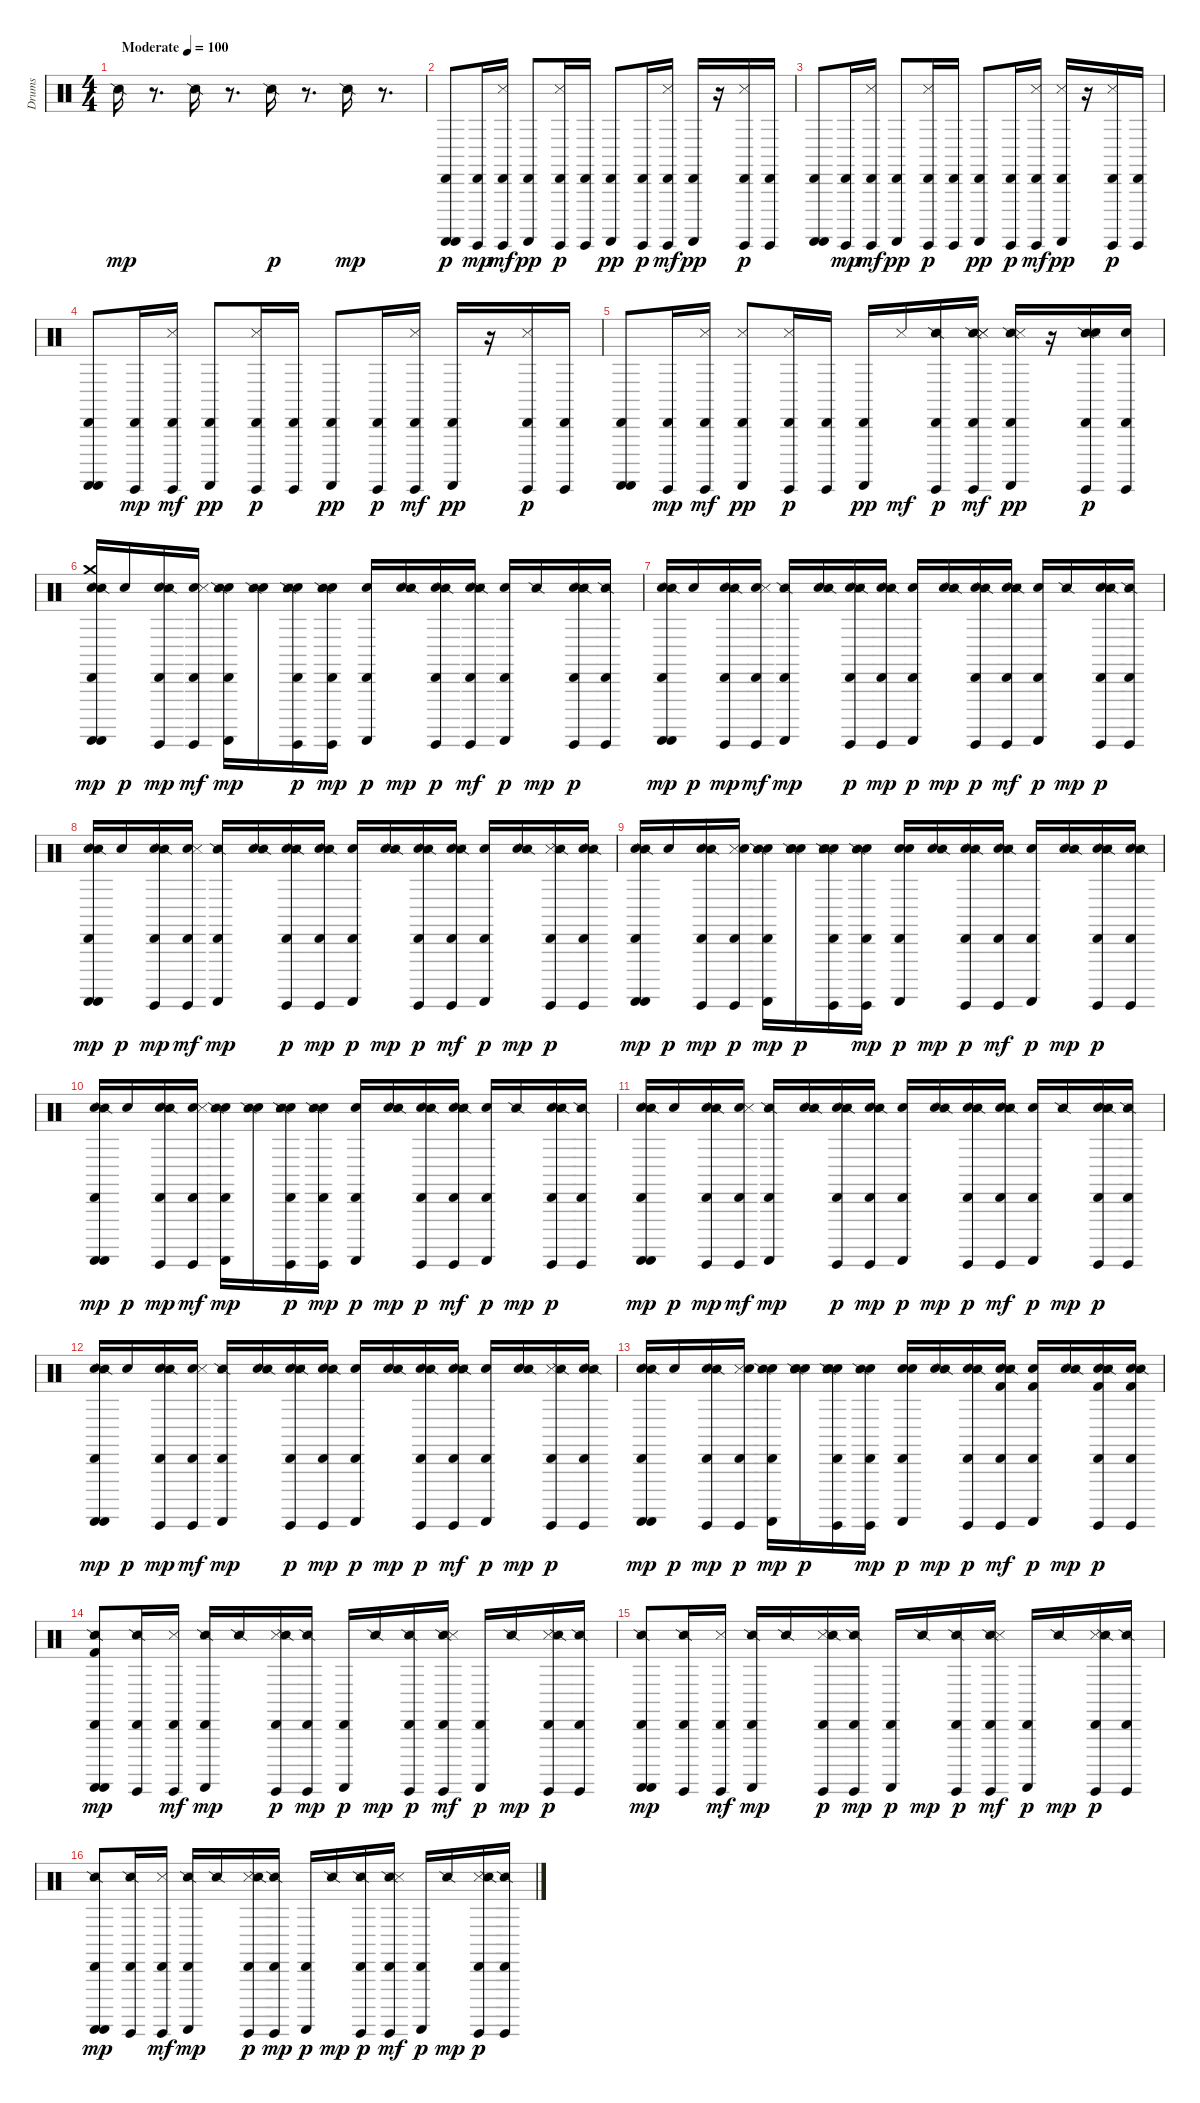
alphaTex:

\track ("Drums" "Drums") {instrument percussion}
\staff {score}
\articulation defaults
\ts (4 4)
\tempo (100 "Moderate")
\clef neutral
\ks c "Snare (side stick) 2".16{dy mp}
r.8{d} "Snare (side stick) 2".16 r.8{d} "Snare (side stick) 2".16{dy p} r.8{d} "Snare (side stick) 2".16{dy mp} r.8{d} |
("Cabasa (hit)" "Guiro (scrap-return)" "Guiro (scrap-return)").8{dy p} ("Cabasa (hit)" "Guiro (hit)").16{dy mp} ("Guiro (hit)" "Cabasa (hit)" "Metronome (hit)").16{dy mf} ("Cabasa (hit)" "Guiro (scrap-return)").8{dy pp} ("Metronome (hit)" "Guiro (hit)" "Cabasa (hit)").16{dy p} ("Guiro (hit)" "Cabasa (hit)").16 ("Cabasa (hit)" "Guiro (scrap-return)").8{dy pp} ("Guiro (hit)" "Cabasa (hit)").16{dy p} ("Guiro (hit)" "Cabasa (hit)" "Metronome (hit)").16{dy mf} ("Cabasa (hit)" "Guiro (scrap-return)").16{dy pp} r.16 ("Metronome (hit)" "Guiro (hit)" "Cabasa (hit)").16{dy p} ("Guiro (hit)" "Cabasa (hit)").16 |
("Cabasa (hit)" "Guiro (scrap-return)" "Guiro (scrap-return)").8 ("Cabasa (hit)" "Guiro (hit)").16{dy mp} ("Guiro (hit)" "Cabasa (hit)" "Metronome (hit)").16{dy mf} ("Cabasa (hit)" "Guiro (scrap-return)").8{dy pp} ("Metronome (hit)" "Guiro (hit)" "Cabasa (hit)").16{dy p} ("Guiro (hit)" "Cabasa (hit)").16 ("Cabasa (hit)" "Guiro (scrap-return)").8{dy pp} ("Guiro (hit)" "Cabasa (hit)").16{dy p} ("Guiro (hit)" "Cabasa (hit)" "Metronome (hit)").16{dy mf} ("Metronome (hit)" "Cabasa (hit)" "Guiro (scrap-return)").16{dy pp} r.16 ("Metronome (hit)" "Guiro (hit)" "Cabasa (hit)").16{dy p} ("Guiro (hit)" "Cabasa (hit)").16 |
("Cabasa (hit)" "Guiro (scrap-return)" "Guiro (scrap-return)").8 ("Cabasa (hit)" "Guiro (hit)").16{dy mp} ("Guiro (hit)" "Cabasa (hit)" "Metronome (hit)").16{dy mf} ("Cabasa (hit)" "Guiro (scrap-return)").8{dy pp} ("Metronome (hit)" "Guiro (hit)" "Cabasa (hit)").16{dy p} ("Guiro (hit)" "Cabasa (hit)").16 ("Cabasa (hit)" "Guiro (scrap-return)").8{dy pp} ("Guiro (hit)" "Cabasa (hit)").16{dy p} ("Guiro (hit)" "Cabasa (hit)" "Metronome (hit)").16{dy mf} ("Cabasa (hit)" "Guiro (scrap-return)").16{dy pp} r.16 ("Metronome (hit)" "Guiro (hit)" "Cabasa (hit)").16{dy p} ("Guiro (hit)" "Cabasa (hit)").16 |
("Cabasa (hit)" "Guiro (scrap-return)" "Guiro (scrap-return)").8 ("Cabasa (hit)" "Guiro (hit)").16{dy mp} ("Guiro (hit)" "Cabasa (hit)" "Metronome (hit)").16{dy mf} ("Metronome (hit)" "Cabasa (hit)" "Guiro (scrap-return)").8{dy pp} ("Metronome (hit)" "Guiro (hit)" "Cabasa (hit)").16{dy p} ("Guiro (hit)" "Cabasa (hit)").16 ("Cabasa (hit)" "Guiro (scrap-return)").16{dy pp} "Metronome (hit)".16{dy mf} ("Snare (side stick) 2" "Guiro (hit)" "Cabasa (hit)").16{dy p} ("Snare (side stick) 2" "Metronome (hit)" "Guiro (hit)" "Cabasa (hit)" "Metronome (hit)").16{dy mf} ("Snare (side stick) 2" "Metronome (hit)" "Cabasa (hit)" "Guiro (scrap-return)").16{dy pp} r.16 ("Snare (side stick) 2" "Metronome (bell)" "Metronome (hit)" "Guiro (hit)" "Cabasa (hit)").16{dy p} ("Metronome (bell)" "Guiro (hit)" "Cabasa (hit)").16 |
("Electric Snare (hit)" "Crash medium (hit)" "Cabasa (hit)" "Guiro (scrap-return)" "Guiro (scrap-return)" "Snare (side stick) 2").16{dy mp} "Electric Snare (hit)".16{dy p} ("Electric Snare (hit)" "Cabasa (hit)" "Guiro (hit)" "Snare (side stick) 2").16{dy mp} ("Electric Snare (hit)" "Guiro (hit)" "Cabasa (hit)" "Metronome (hit)").16{dy mf} ("Electric Snare (hit)" "Cabasa (hit)" "Guiro (scrap-return)" "Snare (side stick) 2").16{dy mp} ("Electric Snare (hit)" "Snare (side stick) 2").16 ("Electric Snare (hit)" "Metronome (hit)" "Snare (side stick) 2" "Guiro (hit)" "Cabasa (hit)").16{dy p} ("Electric Snare (hit)" "Guiro (hit)" "Cabasa (hit)" "Snare (side stick) 2").16{dy mp} ("Electric Snare (hit)" "Cabasa (hit)" "Guiro (scrap-return)").16{dy p} ("Electric Snare (hit)" "Snare (side stick) 2").16{dy mp} ("Electric Snare (hit)" "Snare (side stick) 2" "Guiro (hit)" "Cabasa (hit)").16{dy p} ("Electric Snare (hit)" "Guiro (hit)" "Snare (side stick) 2" "Cabasa (hit)" "Metronome (hit)").16{dy mf} ("Electric Snare (hit)" "Cabasa (hit)" "Guiro (scrap-return)").16{dy p} "Snare (side stick) 2".16{dy mp} ("Electric Snare (hit)" "Metronome (hit)" "Guiro (hit)" "Snare (side stick) 2" "Cabasa (hit)").16{dy p} ("Guiro (hit)" "Snare (side stick) 2" "Cabasa (hit)").16 |
("Electric Snare (hit)" "Cabasa (hit)" "Guiro (scrap-return)" "Guiro (scrap-return)" "Snare (side stick) 2").16{dy mp} "Electric Snare (hit)".16{dy p} ("Electric Snare (hit)" "Cabasa (hit)" "Guiro (hit)" "Snare (side stick) 2").16{dy mp} ("Electric Snare (hit)" "Guiro (hit)" "Cabasa (hit)" "Metronome (hit)").16{dy mf} ("Cabasa (hit)" "Guiro (scrap-return)" "Snare (side stick) 2").16{dy mp} ("Electric Snare (hit)" "Snare (side stick) 2").16 ("Electric Snare (hit)" "Metronome (hit)" "Snare (side stick) 2" "Guiro (hit)" "Cabasa (hit)").16{dy p} ("Electric Snare (hit)" "Guiro (hit)" "Cabasa (hit)" "Snare (side stick) 2").16{dy mp} ("Electric Snare (hit)" "Cabasa (hit)" "Guiro (scrap-return)").16{dy p} ("Electric Snare (hit)" "Snare (side stick) 2").16{dy mp} ("Electric Snare (hit)" "Snare (side stick) 2" "Guiro (hit)" "Cabasa (hit)").16{dy p} ("Electric Snare (hit)" "Guiro (hit)" "Snare (side stick) 2" "Cabasa (hit)" "Metronome (hit)").16{dy mf} ("Electric Snare (hit)" "Cabasa (hit)" "Guiro (scrap-return)").16{dy p} "Snare (side stick) 2".16{dy mp} ("Electric Snare (hit)" "Metronome (hit)" "Guiro (hit)" "Snare (side stick) 2" "Cabasa (hit)").16{dy p} ("Guiro (hit)" "Snare (side stick) 2" "Cabasa (hit)").16 |
("Electric Snare (hit)" "Cabasa (hit)" "Guiro (scrap-return)" "Guiro (scrap-return)" "Snare (side stick) 2").16{dy mp} "Electric Snare (hit)".16{dy p} ("Electric Snare (hit)" "Cabasa (hit)" "Guiro (hit)" "Snare (side stick) 2").16{dy mp} ("Electric Snare (hit)" "Guiro (hit)" "Cabasa (hit)" "Metronome (hit)").16{dy mf} ("Cabasa (hit)" "Guiro (scrap-return)" "Snare (side stick) 2").16{dy mp} ("Electric Snare (hit)" "Snare (side stick) 2").16 ("Electric Snare (hit)" "Metronome (hit)" "Snare (side stick) 2" "Guiro (hit)" "Cabasa (hit)").16{dy p} ("Electric Snare (hit)" "Guiro (hit)" "Cabasa (hit)" "Snare (side stick) 2").16{dy mp} ("Electric Snare (hit)" "Cabasa (hit)" "Guiro (scrap-return)").16{dy p} ("Electric Snare (hit)" "Snare (side stick) 2").16{dy mp} ("Electric Snare (hit)" "Snare (side stick) 2" "Guiro (hit)" "Cabasa (hit)").16{dy p} ("Electric Snare (hit)" "Guiro (hit)" "Snare (side stick) 2" "Cabasa (hit)" "Metronome (hit)").16{dy mf} ("Electric Snare (hit)" "Cabasa (hit)" "Guiro (scrap-return)").16{dy p} ("Electric Snare (hit)" "Snare (side stick) 2").16{dy mp} ("Metronome (hit)" "Guiro (hit)" "Snare (side stick) 2" "Cabasa (hit)").16{dy p} ("Electric Snare (hit)" "Guiro (hit)" "Snare (side stick) 2" "Cabasa (hit)").16 |
("Electric Snare (hit)" "Cabasa (hit)" "Guiro (scrap-return)" "Guiro (scrap-return)" "Snare (side stick) 2").16{dy mp} "Electric Snare (hit)".16{dy p} ("Electric Snare (hit)" "Cabasa (hit)" "Guiro (hit)" "Snare (side stick) 2").16{dy mp} ("Guiro (hit)" "Cabasa (hit)" "Metronome (hit)" "Electric Snare (hit)").16{dy p} ("Electric Snare (hit)" "Cabasa (hit)" "Guiro (scrap-return)" "Snare (side stick) 2").16{dy mp} ("Electric Snare (hit)" "Snare (side stick) 2" "Electric Snare (hit)").16{dy p} ("Electric Snare (hit)" "Electric Snare (hit)" "Metronome (hit)" "Snare (side stick) 2" "Guiro (hit)" "Cabasa (hit)").16 ("Electric Snare (hit)" "Guiro (hit)" "Cabasa (hit)" "Snare (side stick) 2").16{dy mp} ("Electric Snare (hit)" "Cabasa (hit)" "Guiro (scrap-return)" "Electric Snare (hit)").16{dy p} ("Electric Snare (hit)" "Snare (side stick) 2").16{dy mp} ("Electric Snare (hit)" "Snare (side stick) 2" "Guiro (hit)" "Cabasa (hit)").16{dy p} ("Electric Snare (hit)" "Guiro (hit)" "Snare (side stick) 2" "Cabasa (hit)" "Metronome (hit)").16{dy mf} ("Electric Snare (hit)" "Cabasa (hit)" "Guiro (scrap-return)").16{dy p} ("Electric Snare (hit)" "Snare (side stick) 2").16{dy mp} ("Electric Snare (hit)" "Metronome (hit)" "Guiro (hit)" "Snare (side stick) 2" "Cabasa (hit)").16{dy p} ("Electric Snare (hit)" "Guiro (hit)" "Snare (side stick) 2" "Cabasa (hit)").16 |
("Electric Snare (hit)" "Cabasa (hit)" "Guiro (scrap-return)" "Guiro (scrap-return)" "Snare (side stick) 2").16{dy mp} "Electric Snare (hit)".16{dy p} ("Electric Snare (hit)" "Cabasa (hit)" "Guiro (hit)" "Snare (side stick) 2").16{dy mp} ("Electric Snare (hit)" "Guiro (hit)" "Cabasa (hit)" "Metronome (hit)").16{dy mf} ("Electric Snare (hit)" "Cabasa (hit)" "Guiro (scrap-return)" "Snare (side stick) 2").16{dy mp} ("Electric Snare (hit)" "Snare (side stick) 2").16 ("Electric Snare (hit)" "Metronome (hit)" "Snare (side stick) 2" "Guiro (hit)" "Cabasa (hit)").16{dy p} ("Electric Snare (hit)" "Guiro (hit)" "Cabasa (hit)" "Snare (side stick) 2").16{dy mp} ("Electric Snare (hit)" "Cabasa (hit)" "Guiro (scrap-return)").16{dy p} ("Electric Snare (hit)" "Snare (side stick) 2").16{dy mp} ("Electric Snare (hit)" "Snare (side stick) 2" "Guiro (hit)" "Cabasa (hit)").16{dy p} ("Electric Snare (hit)" "Guiro (hit)" "Snare (side stick) 2" "Cabasa (hit)" "Metronome (hit)").16{dy mf} ("Electric Snare (hit)" "Cabasa (hit)" "Guiro (scrap-return)").16{dy p} "Snare (side stick) 2".16{dy mp} ("Electric Snare (hit)" "Metronome (hit)" "Guiro (hit)" "Snare (side stick) 2" "Cabasa (hit)").16{dy p} ("Guiro (hit)" "Snare (side stick) 2" "Cabasa (hit)").16 |
("Electric Snare (hit)" "Cabasa (hit)" "Guiro (scrap-return)" "Guiro (scrap-return)" "Snare (side stick) 2").16{dy mp} "Electric Snare (hit)".16{dy p} ("Electric Snare (hit)" "Cabasa (hit)" "Guiro (hit)" "Snare (side stick) 2").16{dy mp} ("Electric Snare (hit)" "Guiro (hit)" "Cabasa (hit)" "Metronome (hit)").16{dy mf} ("Cabasa (hit)" "Guiro (scrap-return)" "Snare (side stick) 2").16{dy mp} ("Electric Snare (hit)" "Snare (side stick) 2").16 ("Electric Snare (hit)" "Metronome (hit)" "Snare (side stick) 2" "Guiro (hit)" "Cabasa (hit)").16{dy p} ("Electric Snare (hit)" "Guiro (hit)" "Cabasa (hit)" "Snare (side stick) 2").16{dy mp} ("Electric Snare (hit)" "Cabasa (hit)" "Guiro (scrap-return)").16{dy p} ("Electric Snare (hit)" "Snare (side stick) 2").16{dy mp} ("Electric Snare (hit)" "Snare (side stick) 2" "Guiro (hit)" "Cabasa (hit)").16{dy p} ("Electric Snare (hit)" "Guiro (hit)" "Snare (side stick) 2" "Cabasa (hit)" "Metronome (hit)").16{dy mf} ("Electric Snare (hit)" "Cabasa (hit)" "Guiro (scrap-return)").16{dy p} "Snare (side stick) 2".16{dy mp} ("Electric Snare (hit)" "Metronome (hit)" "Guiro (hit)" "Snare (side stick) 2" "Cabasa (hit)").16{dy p} ("Guiro (hit)" "Snare (side stick) 2" "Cabasa (hit)").16 |
("Electric Snare (hit)" "Cabasa (hit)" "Guiro (scrap-return)" "Guiro (scrap-return)" "Snare (side stick) 2").16{dy mp} "Electric Snare (hit)".16{dy p} ("Electric Snare (hit)" "Cabasa (hit)" "Guiro (hit)" "Snare (side stick) 2").16{dy mp} ("Electric Snare (hit)" "Guiro (hit)" "Cabasa (hit)" "Metronome (hit)").16{dy mf} ("Cabasa (hit)" "Guiro (scrap-return)" "Snare (side stick) 2").16{dy mp} ("Electric Snare (hit)" "Snare (side stick) 2").16 ("Electric Snare (hit)" "Metronome (hit)" "Snare (side stick) 2" "Guiro (hit)" "Cabasa (hit)").16{dy p} ("Electric Snare (hit)" "Guiro (hit)" "Cabasa (hit)" "Snare (side stick) 2").16{dy mp} ("Electric Snare (hit)" "Cabasa (hit)" "Guiro (scrap-return)").16{dy p} ("Electric Snare (hit)" "Snare (side stick) 2").16{dy mp} ("Electric Snare (hit)" "Snare (side stick) 2" "Guiro (hit)" "Cabasa (hit)").16{dy p} ("Electric Snare (hit)" "Guiro (hit)" "Snare (side stick) 2" "Cabasa (hit)" "Metronome (hit)").16{dy mf} ("Electric Snare (hit)" "Cabasa (hit)" "Guiro (scrap-return)").16{dy p} ("Electric Snare (hit)" "Snare (side stick) 2").16{dy mp} ("Metronome (hit)" "Guiro (hit)" "Snare (side stick) 2" "Cabasa (hit)").16{dy p} ("Electric Snare (hit)" "Guiro (hit)" "Snare (side stick) 2" "Cabasa (hit)").16 |
("Electric Snare (hit)" "Cabasa (hit)" "Guiro (scrap-return)" "Guiro (scrap-return)" "Snare (side stick) 2").16{dy mp} "Electric Snare (hit)".16{dy p} ("Electric Snare (hit)" "Cabasa (hit)" "Guiro (hit)" "Snare (side stick) 2").16{dy mp} ("Guiro (hit)" "Cabasa (hit)" "Metronome (hit)" "Electric Snare (hit)").16{dy p} ("Electric Snare (hit)" "Cabasa (hit)" "Guiro (scrap-return)" "Snare (side stick) 2").16{dy mp} ("Electric Snare (hit)" "Snare (side stick) 2" "Electric Snare (hit)").16{dy p} ("Electric Snare (hit)" "Electric Snare (hit)" "Metronome (hit)" "Snare (side stick) 2" "Guiro (hit)" "Cabasa (hit)").16 ("Electric Snare (hit)" "Guiro (hit)" "Cabasa (hit)" "Snare (side stick) 2").16{dy mp} ("Electric Snare (hit)" "Cabasa (hit)" "Guiro (scrap-return)" "Electric Snare (hit)").16{dy p} ("Electric Snare (hit)" "Snare (side stick) 2").16{dy mp} ("Electric Snare (hit)" "Snare (side stick) 2" "Guiro (hit)" "Cabasa (hit)").16{dy p} ("Kick (hit) 2" "Electric Snare (hit)" "Guiro (hit)" "Snare (side stick) 2" "Cabasa (hit)" "Metronome (hit)").16{dy mf} ("Kick (hit) 2" "Electric Snare (hit)" "Cabasa (hit)" "Guiro (scrap-return)").16{dy p} ("Electric Snare (hit)" "Snare (side stick) 2").16{dy mp} ("Electric Snare (hit)" "Metronome (hit)" "Guiro (hit)" "Snare (side stick) 2" "Cabasa (hit)" "Kick (hit) 2").16{dy p} ("Kick (hit) 2" "Electric Snare (hit)" "Guiro (hit)" "Snare (side stick) 2" "Cabasa (hit)").16 |
("Kick (hit) 2" "Cabasa (hit)" "Guiro (scrap-return)" "Guiro (scrap-return)" "Snare (side stick) 2").8{dy mp} ("Cabasa (hit)" "Guiro (hit)" "Snare (side stick) 2").16 ("Guiro (hit)" "Cabasa (hit)" "Metronome (hit)").16{dy mf} ("Cabasa (hit)" "Guiro (scrap-return)" "Snare (side stick) 2").16{dy mp} "Snare (side stick) 2".16 ("Metronome (hit)" "Snare (side stick) 2" "Guiro (hit)" "Cabasa (hit)").16{dy p} ("Guiro (hit)" "Cabasa (hit)" "Snare (side stick) 2").16{dy mp} ("Cabasa (hit)" "Guiro (scrap-return)").16{dy p} "Snare (side stick) 2".16{dy mp} ("Snare (side stick) 2" "Guiro (hit)" "Cabasa (hit)").16{dy p} ("Guiro (hit)" "Snare (side stick) 2" "Cabasa (hit)" "Metronome (hit)").16{dy mf} ("Cabasa (hit)" "Guiro (scrap-return)").16{dy p} "Snare (side stick) 2".16{dy mp} ("Metronome (hit)" "Guiro (hit)" "Snare (side stick) 2" "Cabasa (hit)").16{dy p} ("Guiro (hit)" "Snare (side stick) 2" "Cabasa (hit)").16 |
("Cabasa (hit)" "Guiro (scrap-return)" "Guiro (scrap-return)" "Snare (side stick) 2").8{dy mp} ("Cabasa (hit)" "Guiro (hit)" "Snare (side stick) 2").16 ("Guiro (hit)" "Cabasa (hit)" "Metronome (hit)").16{dy mf} ("Cabasa (hit)" "Guiro (scrap-return)" "Snare (side stick) 2").16{dy mp} "Snare (side stick) 2".16 ("Metronome (hit)" "Snare (side stick) 2" "Guiro (hit)" "Cabasa (hit)").16{dy p} ("Guiro (hit)" "Cabasa (hit)" "Snare (side stick) 2").16{dy mp} ("Cabasa (hit)" "Guiro (scrap-return)").16{dy p} "Snare (side stick) 2".16{dy mp} ("Snare (side stick) 2" "Guiro (hit)" "Cabasa (hit)").16{dy p} ("Guiro (hit)" "Snare (side stick) 2" "Cabasa (hit)" "Metronome (hit)").16{dy mf} ("Cabasa (hit)" "Guiro (scrap-return)").16{dy p} "Snare (side stick) 2".16{dy mp} ("Metronome (hit)" "Guiro (hit)" "Snare (side stick) 2" "Cabasa (hit)").16{dy p} ("Guiro (hit)" "Snare (side stick) 2" "Cabasa (hit)").16 |
("Cabasa (hit)" "Guiro (scrap-return)" "Guiro (scrap-return)" "Snare (side stick) 2").8{dy mp} ("Cabasa (hit)" "Guiro (hit)" "Snare (side stick) 2").16 ("Guiro (hit)" "Cabasa (hit)" "Metronome (hit)").16{dy mf} ("Cabasa (hit)" "Guiro (scrap-return)" "Snare (side stick) 2").16{dy mp} "Snare (side stick) 2".16 ("Metronome (hit)" "Snare (side stick) 2" "Guiro (hit)" "Cabasa (hit)").16{dy p} ("Guiro (hit)" "Cabasa (hit)" "Snare (side stick) 2").16{dy mp} ("Cabasa (hit)" "Guiro (scrap-return)").16{dy p} "Snare (side stick) 2".16{dy mp} ("Snare (side stick) 2" "Guiro (hit)" "Cabasa (hit)").16{dy p} ("Guiro (hit)" "Snare (side stick) 2" "Cabasa (hit)" "Metronome (hit)").16{dy mf} ("Cabasa (hit)" "Guiro (scrap-return)").16{dy p} "Snare (side stick) 2".16{dy mp} ("Metronome (hit)" "Guiro (hit)" "Snare (side stick) 2" "Cabasa (hit)").16{dy p} ("Guiro (hit)" "Snare (side stick) 2" "Cabasa (hit)").16
